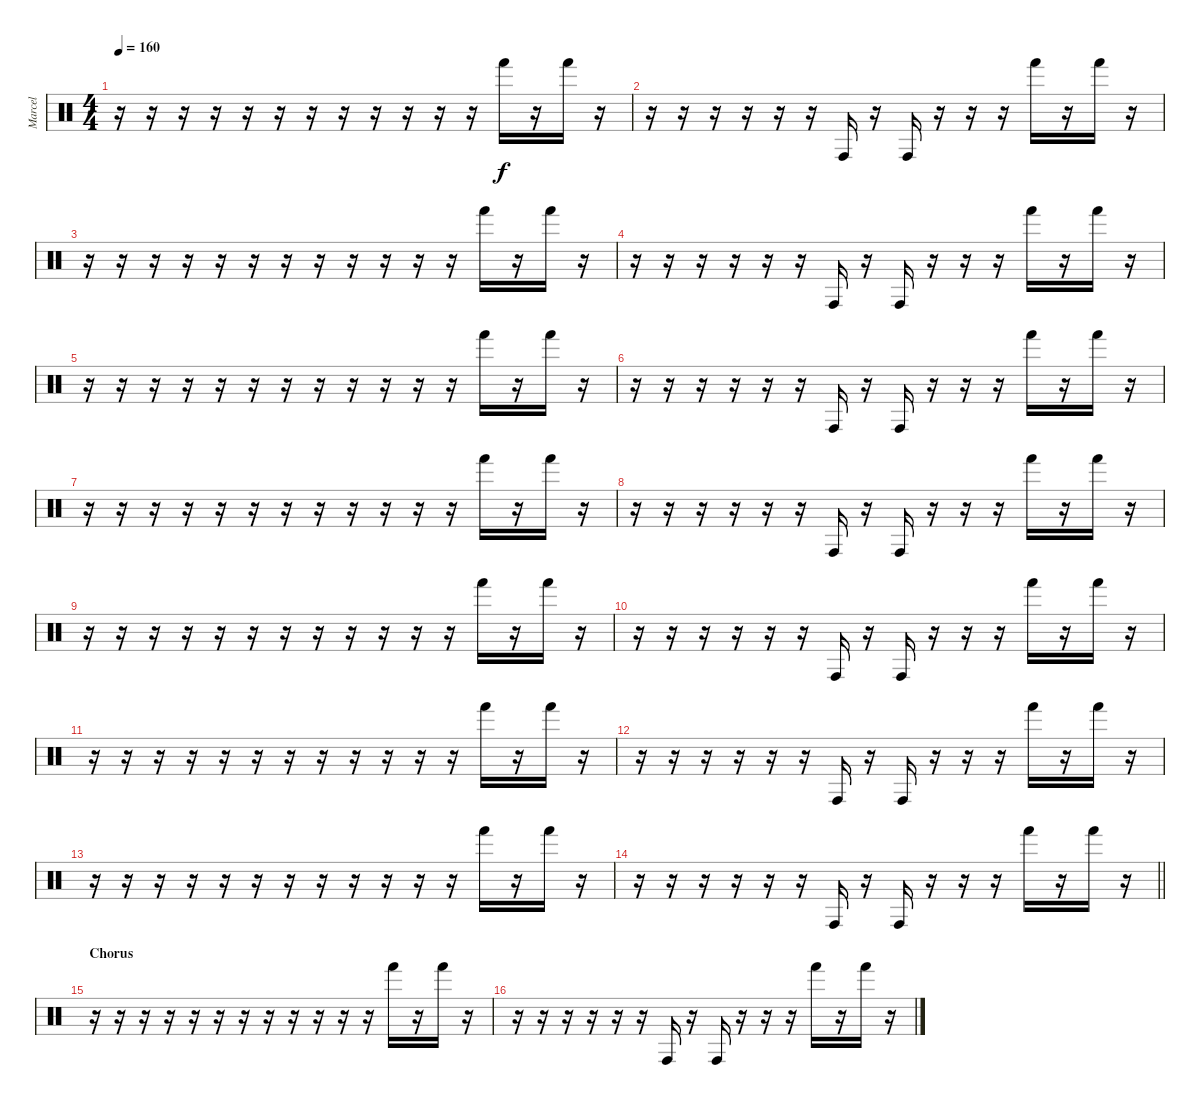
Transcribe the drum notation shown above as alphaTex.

\track ("Marcel" "Marcel") {instrument percussion}
\staff {score}
\articulation defaults
\ts (4 4)
\tempo 160
\clef neutral
\ks c
r.16{dy f} r.16 r.16 r.16 r.16 r.16 r.16 r.16 r.16 r.16 r.16 r.16 "Hand (hit)".16 r.16 "Hand (hit)".16 r.16 |
r.16 r.16 r.16 r.16 r.16 r.16 "Conga high (hit)".16 r.16 "Conga high (hit)".16 r.16 r.16 r.16 "Hand (hit)".16 r.16 "Hand (hit)".16 r.16 |
r.16 r.16 r.16 r.16 r.16 r.16 r.16 r.16 r.16 r.16 r.16 r.16 "Hand (hit)".16 r.16 "Hand (hit)".16 r.16 |
r.16 r.16 r.16 r.16 r.16 r.16 "Conga high (hit)".16 r.16 "Conga high (hit)".16 r.16 r.16 r.16 "Hand (hit)".16 r.16 "Hand (hit)".16 r.16 |
r.16 r.16 r.16 r.16 r.16 r.16 r.16 r.16 r.16 r.16 r.16 r.16 "Hand (hit)".16 r.16 "Hand (hit)".16 r.16 |
r.16 r.16 r.16 r.16 r.16 r.16 "Conga high (hit)".16 r.16 "Conga high (hit)".16 r.16 r.16 r.16 "Hand (hit)".16 r.16 "Hand (hit)".16 r.16 |
r.16 r.16 r.16 r.16 r.16 r.16 r.16 r.16 r.16 r.16 r.16 r.16 "Hand (hit)".16 r.16 "Hand (hit)".16 r.16 |
r.16 r.16 r.16 r.16 r.16 r.16 "Conga high (hit)".16 r.16 "Conga high (hit)".16 r.16 r.16 r.16 "Hand (hit)".16 r.16 "Hand (hit)".16 r.16 |
r.16 r.16 r.16 r.16 r.16 r.16 r.16 r.16 r.16 r.16 r.16 r.16 "Hand (hit)".16 r.16 "Hand (hit)".16 r.16 |
r.16 r.16 r.16 r.16 r.16 r.16 "Conga high (hit)".16 r.16 "Conga high (hit)".16 r.16 r.16 r.16 "Hand (hit)".16 r.16 "Hand (hit)".16 r.16 |
r.16 r.16 r.16 r.16 r.16 r.16 r.16 r.16 r.16 r.16 r.16 r.16 "Hand (hit)".16 r.16 "Hand (hit)".16 r.16 |
r.16 r.16 r.16 r.16 r.16 r.16 "Conga high (hit)".16 r.16 "Conga high (hit)".16 r.16 r.16 r.16 "Hand (hit)".16 r.16 "Hand (hit)".16 r.16 |
r.16 r.16 r.16 r.16 r.16 r.16 r.16 r.16 r.16 r.16 r.16 r.16 "Hand (hit)".16 r.16 "Hand (hit)".16 r.16 |
\barLineRight lightlight
r.16 r.16 r.16 r.16 r.16 r.16 "Conga high (hit)".16 r.16 "Conga high (hit)".16 r.16 r.16 r.16 "Hand (hit)".16 r.16 "Hand (hit)".16 r.16 |
\section ("" "Chorus")
r.16 r.16 r.16 r.16 r.16 r.16 r.16 r.16 r.16 r.16 r.16 r.16 "Hand (hit)".16 r.16 "Hand (hit)".16 r.16 |
r.16 r.16 r.16 r.16 r.16 r.16 "Conga high (hit)".16 r.16 "Conga high (hit)".16 r.16 r.16 r.16 "Hand (hit)".16 r.16 "Hand (hit)".16 r.16
